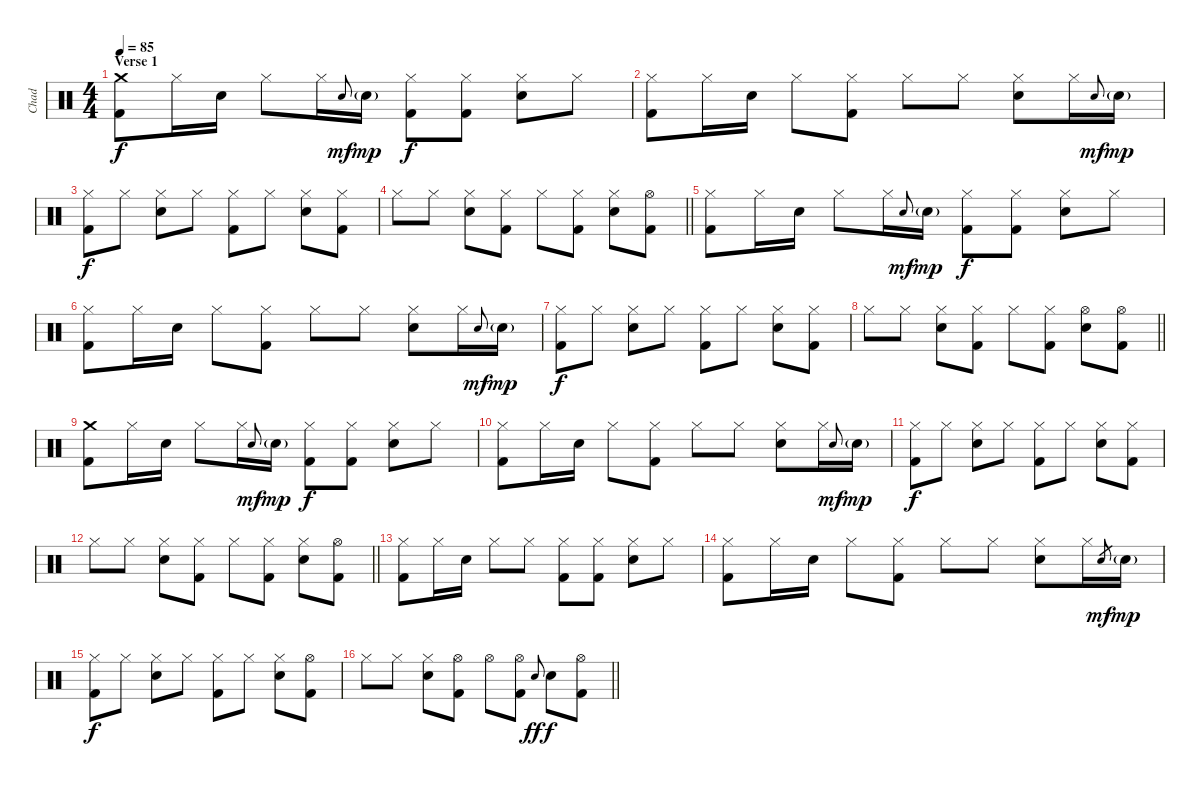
\track ("Chad" "Chad") {instrument percussion}
\staff {score}
\articulation defaults
\ts (4 4)
\section ("" "Verse 1")
\tempo 85
\clef neutral
\ks c
("Crash medium (hit)" "Kick (hit) 2").8{dy f} "Hi-Hat (closed)".16 "Electric Snare (hit)".16 "Hi-Hat (closed)".8 "Hi-Hat (closed)".16 "Electric Snare (hit)".8{gr onbeat dy mf} "Electric Snare (hit)"{g}.16{dy mp} ("Hi-Hat (closed)" "Kick (hit) 2").8{dy f} ("Hi-Hat (closed)" "Kick (hit) 2").8 ("Electric Snare (hit)" "Hi-Hat (closed)").8 "Hi-Hat (closed)".8 |
("Hi-Hat (closed)" "Kick (hit) 2").8 "Hi-Hat (closed)".16 "Electric Snare (hit)".16 "Hi-Hat (closed)".8 ("Hi-Hat (closed)" "Kick (hit) 2").8 "Hi-Hat (closed)".8 "Hi-Hat (closed)".8 ("Electric Snare (hit)" "Hi-Hat (closed)").8 "Hi-Hat (closed)".16 "Electric Snare (hit)".8{gr onbeat dy mf} "Electric Snare (hit)"{g}.16{dy mp} |
("Hi-Hat (closed)" "Kick (hit) 2").8{dy f} "Hi-Hat (closed)".8 ("Electric Snare (hit)" "Hi-Hat (closed)").8 "Hi-Hat (closed)".8 ("Hi-Hat (closed)" "Kick (hit) 2").8 "Hi-Hat (closed)".8 ("Electric Snare (hit)" "Hi-Hat (closed)").8 ("Hi-Hat (closed)" "Kick (hit) 2").8 |
\barLineRight lightlight "Hi-Hat (closed)".8 "Hi-Hat (closed)".8
("Electric Snare (hit)" "Hi-Hat (closed)").8 ("Hi-Hat (closed)" "Kick (hit) 2").8 "Hi-Hat (closed)".8 ("Hi-Hat (closed)" "Kick (hit) 2").8 ("Electric Snare (hit)" "Hi-Hat (closed)").8 ("Hi-Hat (open)" "Kick (hit) 2").8 |
("Hi-Hat (closed)" "Kick (hit) 2").8 "Hi-Hat (closed)".16 "Electric Snare (hit)".16 "Hi-Hat (closed)".8 "Hi-Hat (closed)".16 "Electric Snare (hit)".8{gr onbeat dy mf} "Electric Snare (hit)"{g}.16{dy mp} ("Hi-Hat (closed)" "Kick (hit) 2").8{dy f} ("Hi-Hat (closed)" "Kick (hit) 2").8 ("Electric Snare (hit)" "Hi-Hat (closed)").8 "Hi-Hat (closed)".8 |
("Hi-Hat (closed)" "Kick (hit) 2").8 "Hi-Hat (closed)".16 "Electric Snare (hit)".16 "Hi-Hat (closed)".8 ("Hi-Hat (closed)" "Kick (hit) 2").8 "Hi-Hat (closed)".8 "Hi-Hat (closed)".8 ("Electric Snare (hit)" "Hi-Hat (closed)").8 "Hi-Hat (closed)".16 "Electric Snare (hit)".8{gr onbeat dy mf} "Electric Snare (hit)"{g}.16{dy mp} |
("Hi-Hat (closed)" "Kick (hit) 2").8{dy f} "Hi-Hat (closed)".8 ("Electric Snare (hit)" "Hi-Hat (closed)").8 "Hi-Hat (closed)".8 ("Hi-Hat (closed)" "Kick (hit) 2").8 "Hi-Hat (closed)".8 ("Electric Snare (hit)" "Hi-Hat (closed)").8 ("Hi-Hat (closed)" "Kick (hit) 2").8 |
\barLineRight lightlight "Hi-Hat (closed)".8 "Hi-Hat (closed)".8
("Electric Snare (hit)" "Hi-Hat (closed)").8 ("Hi-Hat (closed)" "Kick (hit) 2").8 "Hi-Hat (closed)".8 ("Hi-Hat (closed)" "Kick (hit) 2").8 ("Electric Snare (hit)" "Hi-Hat (open)").8 ("Hi-Hat (open)" "Kick (hit) 2").8 |
("Crash medium (hit)" "Kick (hit) 2").8 "Hi-Hat (closed)".16 "Electric Snare (hit)".16 "Hi-Hat (closed)".8 "Hi-Hat (closed)".16 "Electric Snare (hit)".8{gr onbeat dy mf} "Electric Snare (hit)"{g}.16{dy mp} ("Hi-Hat (closed)" "Kick (hit) 2").8{dy f} ("Hi-Hat (closed)" "Kick (hit) 2").8 ("Electric Snare (hit)" "Hi-Hat (closed)").8 "Hi-Hat (closed)".8 |
("Hi-Hat (closed)" "Kick (hit) 2").8 "Hi-Hat (closed)".16 "Electric Snare (hit)".16 "Hi-Hat (closed)".8 ("Hi-Hat (closed)" "Kick (hit) 2").8 "Hi-Hat (closed)".8 "Hi-Hat (closed)".8 ("Electric Snare (hit)" "Hi-Hat (closed)").8 "Hi-Hat (closed)".16 "Electric Snare (hit)".8{gr onbeat dy mf} "Electric Snare (hit)"{g}.16{dy mp} |
("Hi-Hat (closed)" "Kick (hit) 2").8{dy f} "Hi-Hat (closed)".8 ("Electric Snare (hit)" "Hi-Hat (closed)").8 "Hi-Hat (closed)".8 ("Hi-Hat (closed)" "Kick (hit) 2").8 "Hi-Hat (closed)".8 ("Electric Snare (hit)" "Hi-Hat (closed)").8 ("Hi-Hat (closed)" "Kick (hit) 2").8 |
\barLineRight lightlight "Hi-Hat (closed)".8 "Hi-Hat (closed)".8
("Electric Snare (hit)" "Hi-Hat (closed)").8 ("Hi-Hat (closed)" "Kick (hit) 2").8 "Hi-Hat (closed)".8 ("Hi-Hat (closed)" "Kick (hit) 2").8 ("Electric Snare (hit)" "Hi-Hat (closed)").8 ("Hi-Hat (open)" "Kick (hit) 2").8 |
("Hi-Hat (closed)" "Kick (hit) 2").8 "Hi-Hat (closed)".16 "Electric Snare (hit)".16 "Hi-Hat (closed)".8 "Hi-Hat (closed)".8 ("Hi-Hat (closed)" "Kick (hit) 2").8 ("Hi-Hat (closed)" "Kick (hit) 2").8 ("Electric Snare (hit)" "Hi-Hat (closed)").8 "Hi-Hat (closed)".8 |
("Hi-Hat (closed)" "Kick (hit) 2").8 "Hi-Hat (closed)".16 "Electric Snare (hit)".16 "Hi-Hat (closed)".8 ("Hi-Hat (closed)" "Kick (hit) 2").8 "Hi-Hat (closed)".8 "Hi-Hat (closed)".8 ("Electric Snare (hit)" "Hi-Hat (closed)").8 "Hi-Hat (closed)".16 "Electric Snare (hit)".8{gr dy mf} "Electric Snare (hit)"{g}.16{dy mp} |
("Hi-Hat (closed)" "Kick (hit) 2").8{dy f} "Hi-Hat (closed)".8 ("Electric Snare (hit)" "Hi-Hat (closed)").8 "Hi-Hat (closed)".8 ("Hi-Hat (closed)" "Kick (hit) 2").8 "Hi-Hat (closed)".8 ("Electric Snare (hit)" "Hi-Hat (closed)").8 ("Hi-Hat (open)" "Kick (hit) 2").8 |
\barLineRight lightlight "Hi-Hat (closed)".8 "Hi-Hat (closed)".8
("Electric Snare (hit)" "Hi-Hat (closed)").8 ("Hi-Hat (open)" "Kick (hit) 2").8 "Hi-Hat (open)".8 ("Hi-Hat (open)" "Kick (hit) 2").8 "Electric Snare (hit)".8{gr onbeat dy ff} "Electric Snare (hit)".8{dy f} ("Hi-Hat (open)" "Kick (hit) 2").8
